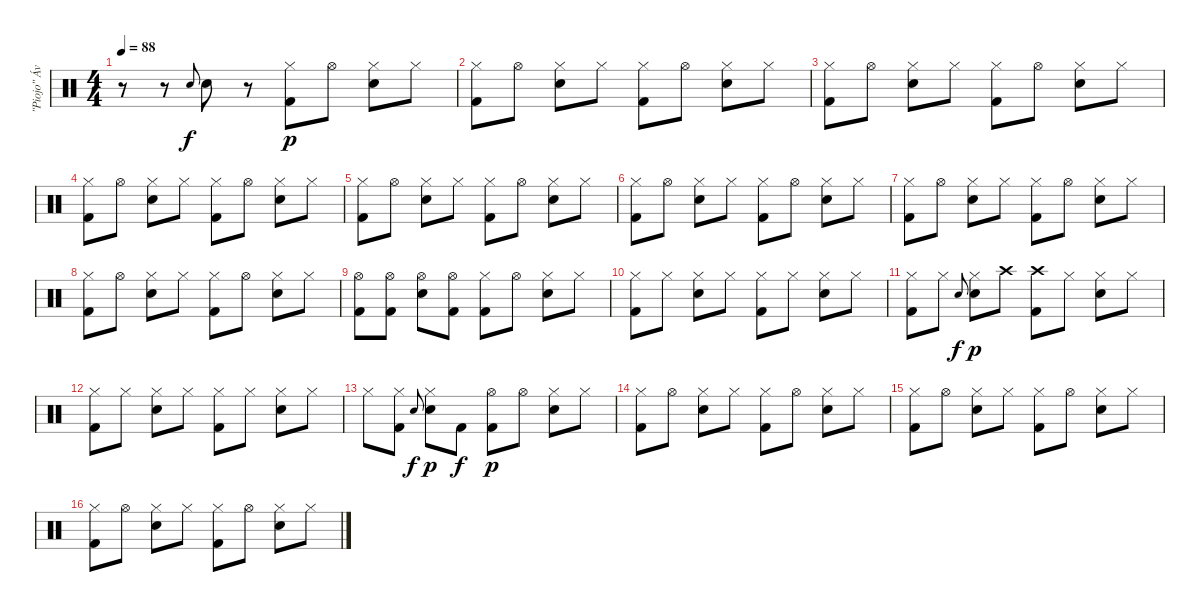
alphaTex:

\track ("\"Piojo\" Ávalos" "\"Piojo\" Áv") {instrument percussion}
\staff {score}
\articulation defaults
\ts (4 4)
\tempo 88
\clef neutral
\ks c
r.8{dy p} r.8 "Snare (hit) 2".8{gr onbeat dy f} "Snare (hit) 2".8 r.8 ("Hi-Hat (closed)" "Kick (hit) 2").8{dy p} "Hi-Hat (open)".8 ("Hi-Hat (closed)" "Snare (hit) 2").8 "Hi-Hat (closed)".8 |
("Hi-Hat (closed)" "Kick (hit) 2").8 "Hi-Hat (open)".8 ("Hi-Hat (closed)" "Snare (hit) 2").8 "Hi-Hat (closed)".8 ("Hi-Hat (closed)" "Kick (hit) 2").8 "Hi-Hat (open)".8 ("Hi-Hat (closed)" "Snare (hit) 2").8 "Hi-Hat (closed)".8 |
("Hi-Hat (closed)" "Kick (hit) 2").8 "Hi-Hat (open)".8 ("Hi-Hat (closed)" "Snare (hit) 2").8 "Hi-Hat (closed)".8 ("Hi-Hat (closed)" "Kick (hit) 2").8 "Hi-Hat (open)".8 ("Hi-Hat (closed)" "Snare (hit) 2").8 "Hi-Hat (closed)".8 |
("Hi-Hat (closed)" "Kick (hit) 2").8 "Hi-Hat (open)".8 ("Hi-Hat (closed)" "Snare (hit) 2").8 "Hi-Hat (closed)".8 ("Hi-Hat (closed)" "Kick (hit) 2").8 "Hi-Hat (open)".8 ("Hi-Hat (closed)" "Snare (hit) 2").8 "Hi-Hat (closed)".8 |
("Hi-Hat (closed)" "Kick (hit) 2").8 "Hi-Hat (open)".8 ("Hi-Hat (closed)" "Snare (hit) 2").8 "Hi-Hat (closed)".8 ("Hi-Hat (closed)" "Kick (hit) 2").8 "Hi-Hat (open)".8 ("Hi-Hat (closed)" "Snare (hit) 2").8 "Hi-Hat (closed)".8 |
("Hi-Hat (closed)" "Kick (hit) 2").8 "Hi-Hat (open)".8 ("Hi-Hat (closed)" "Snare (hit) 2").8 "Hi-Hat (closed)".8 ("Hi-Hat (closed)" "Kick (hit) 2").8 "Hi-Hat (open)".8 ("Hi-Hat (closed)" "Snare (hit) 2").8 "Hi-Hat (closed)".8 |
("Hi-Hat (closed)" "Kick (hit) 2").8 "Hi-Hat (open)".8 ("Hi-Hat (closed)" "Snare (hit) 2").8 "Hi-Hat (closed)".8 ("Hi-Hat (closed)" "Kick (hit) 2").8 "Hi-Hat (open)".8 ("Hi-Hat (closed)" "Snare (hit) 2").8 "Hi-Hat (closed)".8 |
("Hi-Hat (closed)" "Kick (hit) 2").8 "Hi-Hat (open)".8 ("Hi-Hat (closed)" "Snare (hit) 2").8 "Hi-Hat (closed)".8 ("Hi-Hat (closed)" "Kick (hit) 2").8 "Hi-Hat (open)".8 ("Hi-Hat (closed)" "Snare (hit) 2").8 "Hi-Hat (closed)".8 |
("Hi-Hat (open)" "Kick (hit) 2").8 ("Hi-Hat (open)" "Kick (hit) 2").8 ("Hi-Hat (open)" "Snare (hit) 2").8 ("Hi-Hat (open)" "Kick (hit) 2").8 ("Hi-Hat (closed)" "Kick (hit) 2").8 "Hi-Hat (open)".8 ("Hi-Hat (closed)" "Snare (hit) 2").8 "Hi-Hat (closed)".8 |
("Hi-Hat (closed)" "Kick (hit) 2").8 "Hi-Hat (closed)".8 ("Hi-Hat (closed)" "Snare (hit) 2").8 "Hi-Hat (closed)".8 ("Hi-Hat (closed)" "Kick (hit) 2").8 "Hi-Hat (closed)".8 ("Hi-Hat (closed)" "Snare (hit) 2").8 "Hi-Hat (closed)".8 |
("Hi-Hat (closed)" "Kick (hit) 2").8 "Hi-Hat (closed)".8 "Snare (hit) 2".8{gr onbeat dy f} ("Hi-Hat (closed)" "Snare (hit) 2").8{dy p} "Crash high (hit)".8 ("Crash high (hit)" "Kick (hit) 2").8 "Hi-Hat (closed)".8 ("Hi-Hat (closed)" "Snare (hit) 2").8 "Hi-Hat (closed)".8 |
("Hi-Hat (closed)" "Kick (hit) 2").8 "Hi-Hat (closed)".8 ("Hi-Hat (closed)" "Snare (hit) 2").8 "Hi-Hat (closed)".8 ("Hi-Hat (closed)" "Kick (hit) 2").8 "Hi-Hat (closed)".8 ("Hi-Hat (closed)" "Snare (hit) 2").8 "Hi-Hat (closed)".8 |
"Hi-Hat (closed)".8 ("Hi-Hat (closed)" "Kick (hit) 2").8 "Snare (hit) 2".8{gr onbeat dy f} ("Hi-Hat (closed)" "Snare (hit) 2").8{dy p} "Kick (hit) 2".8{dy f} ("Hi-Hat (open)" "Kick (hit) 2").8{dy p} "Hi-Hat (open)".8 ("Hi-Hat (closed)" "Snare (hit) 2").8 "Hi-Hat (closed)".8 |
("Hi-Hat (closed)" "Kick (hit) 2").8 "Hi-Hat (open)".8 ("Hi-Hat (closed)" "Snare (hit) 2").8 "Hi-Hat (closed)".8 ("Hi-Hat (closed)" "Kick (hit) 2").8 "Hi-Hat (open)".8 ("Hi-Hat (closed)" "Snare (hit) 2").8 "Hi-Hat (closed)".8 |
("Hi-Hat (closed)" "Kick (hit) 2").8 "Hi-Hat (open)".8 ("Hi-Hat (closed)" "Snare (hit) 2").8 "Hi-Hat (closed)".8 ("Hi-Hat (closed)" "Kick (hit) 2").8 "Hi-Hat (open)".8 ("Hi-Hat (closed)" "Snare (hit) 2").8 "Hi-Hat (closed)".8 |
("Hi-Hat (closed)" "Kick (hit) 2").8 "Hi-Hat (open)".8 ("Hi-Hat (closed)" "Snare (hit) 2").8 "Hi-Hat (closed)".8 ("Hi-Hat (closed)" "Kick (hit) 2").8 "Hi-Hat (open)".8 ("Hi-Hat (closed)" "Snare (hit) 2").8 "Hi-Hat (closed)".8
